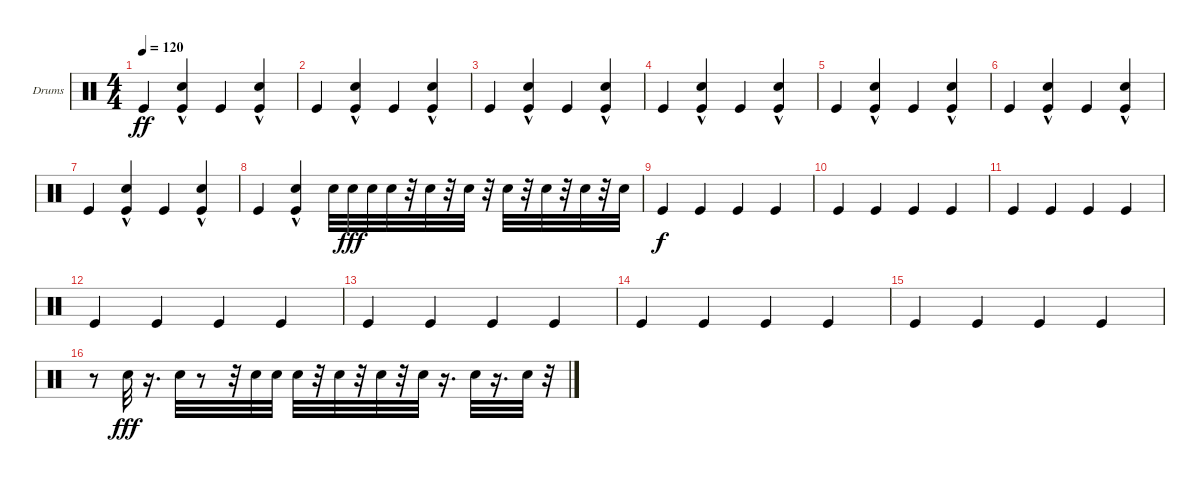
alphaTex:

\defaultSystemsLayout 4
\bracketExtendMode groupsimilarinstruments
\firstSystemTrackNameOrientation horizontal
\otherSystemsTrackNameOrientation horizontal
\track ("Drumkit" "Drums") {instrument percussion}
\staff {score}
\articulation defaults
\ts (4 4)
\tempo 120
\clef neutral
\scale
0.333333
\ks c "Kick (hit)".4{dy ff}
("Kick (hit)" "Snare (hit) 2"{hac}).4 "Kick (hit)".4 ("Kick (hit)" "Snare (hit) 2"{hac}).4 |
\scale
0.333333 "Kick (hit)".4 ("Kick (hit)" "Snare (hit) 2"{hac}).4 "Kick (hit)".4 ("Kick (hit)" "Snare (hit) 2"{hac}).4 |
\scale
0.333333 "Kick (hit)".4 ("Kick (hit)" "Snare (hit) 2"{hac}).4 "Kick (hit)".4 ("Kick (hit)" "Snare (hit) 2"{hac}).4 |
\scale
0.333333 "Kick (hit)".4 ("Kick (hit)" "Snare (hit) 2"{hac}).4 "Kick (hit)".4 ("Kick (hit)" "Snare (hit) 2"{hac}).4 |
\scale
0.333333 "Kick (hit)".4 ("Kick (hit)" "Snare (hit) 2"{hac}).4 "Kick (hit)".4 ("Kick (hit)" "Snare (hit) 2"{hac}).4 |
\scale
0.333333 "Kick (hit)".4 ("Kick (hit)" "Snare (hit) 2"{hac}).4 "Kick (hit)".4 ("Kick (hit)" "Snare (hit) 2"{hac}).4 |
\scale
0.333333 "Kick (hit)".4 ("Kick (hit)" "Snare (hit) 2"{hac}).4 "Kick (hit)".4 ("Kick (hit)" "Snare (hit) 2"{hac}).4 |
\scale
0.333333 "Kick (hit)".4 ("Kick (hit)" "Snare (hit) 2"{hac}).4 "Snare (hit) 2".32 "Snare (hit) 2".32{dy fff} "Snare (hit) 2".32 "Snare (hit) 2".32 r.32 "Snare (hit) 2".32 r.32 "Snare (hit) 2".32 r.32 "Snare (hit) 2".32 r.32 "Snare (hit) 2".32 r.32 "Snare (hit) 2".32 r.32 "Snare (hit) 2".32 |
\scale
0.333333 "Kick (hit)".4{dy f} "Kick (hit)".4 "Kick (hit)".4 "Kick (hit)".4 |
\scale
0.333333 "Kick (hit)".4 "Kick (hit)".4 "Kick (hit)".4 "Kick (hit)".4 |
\scale
0.333333 "Kick (hit)".4 "Kick (hit)".4 "Kick (hit)".4 "Kick (hit)".4 |
\scale
0.333333 "Kick (hit)".4 "Kick (hit)".4 "Kick (hit)".4 "Kick (hit)".4 |
\scale
0.333333 "Kick (hit)".4 "Kick (hit)".4 "Kick (hit)".4 "Kick (hit)".4 |
\scale
0.333333 "Kick (hit)".4 "Kick (hit)".4 "Kick (hit)".4 "Kick (hit)".4 |
\scale
0.333333 "Kick (hit)".4 "Kick (hit)".4 "Kick (hit)".4 "Kick (hit)".4 |
\scale
0.333333 r.8 "Snare (hit) 2".32{dy fff} r.16{d} "Snare (hit) 2".32 r.8 r.32 "Snare (hit) 2".32 "Snare (hit) 2".32 "Snare (hit) 2".32 r.32 "Snare (hit) 2".32 r.32 "Snare (hit) 2".32 r.32 "Snare (hit) 2".32 r.16{d} "Snare (hit) 2".32 r.16{d} "Snare (hit) 2".32 r.32
